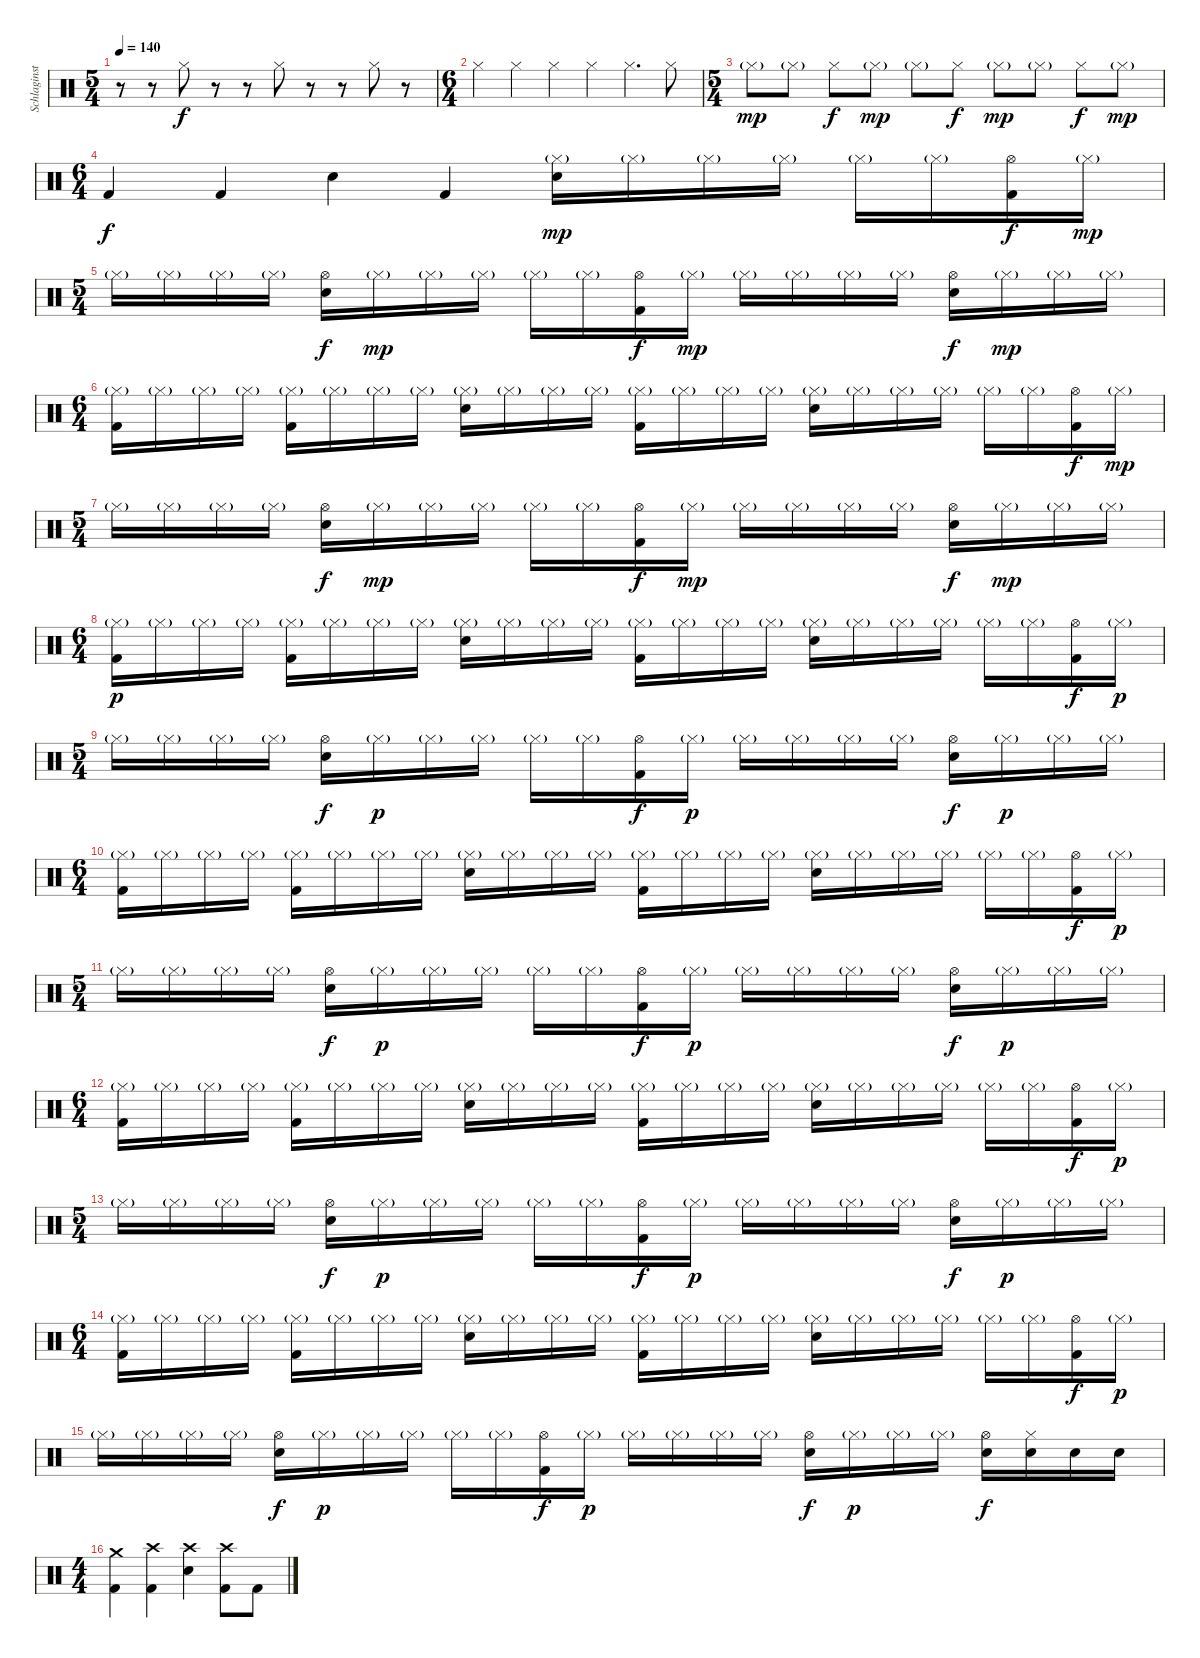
\track ("Schlaginstrumente - Auswahl" "Schlaginst") {instrument percussion}
\staff {score}
\articulation defaults
\ts (5 4)
\tempo 140
\clef neutral
\ks c
r.8{dy f} r.8 "Hi-Hat (closed)".8 r.8 r.8 "Hi-Hat (closed)".8 r.8 r.8 "Hi-Hat (closed)".8 r.8 |
\ts (6 4)
"Hi-Hat (closed)".4 "Hi-Hat (closed)".4 "Hi-Hat (closed)".4 "Hi-Hat (closed)".4 "Hi-Hat (closed)".4{d} "Hi-Hat (closed)".8 |
\ts (5 4)
"Hi-Hat (closed)"{g}.8{dy mp} "Hi-Hat (closed)"{g}.8 "Hi-Hat (closed)".8{dy f} "Hi-Hat (closed)"{g}.8{dy mp} "Hi-Hat (closed)"{g}.8 "Hi-Hat (closed)".8{dy f} "Hi-Hat (closed)"{g}.8{dy mp} "Hi-Hat (closed)"{g}.8 "Hi-Hat (closed)".8{dy f} "Hi-Hat (closed)"{g}.8{dy mp} |
\ts (6 4)
"Kick (hit) 2".4{dy f} "Kick (hit) 2".4 "Electric Snare (hit)".4 "Kick (hit) 2".4 ("Hi-Hat (closed)"{g} "Electric Snare (hit)").16{dy mp} "Hi-Hat (closed)"{g}.16 "Hi-Hat (closed)"{g}.16 "Hi-Hat (closed)"{g}.16 "Hi-Hat (closed)"{g}.16 "Hi-Hat (closed)"{g}.16 ("Hi-Hat (open)" "Kick (hit) 2").16{dy f} "Hi-Hat (closed)"{g}.16{dy mp} |
\ts (5 4)
"Hi-Hat (closed)"{g}.16 "Hi-Hat (closed)"{g}.16 "Hi-Hat (closed)"{g}.16 "Hi-Hat (closed)"{g}.16 ("Hi-Hat (open)" "Electric Snare (hit)").16{dy f} "Hi-Hat (closed)"{g}.16{dy mp} "Hi-Hat (closed)"{g}.16 "Hi-Hat (closed)"{g}.16 "Hi-Hat (closed)"{g}.16 "Hi-Hat (closed)"{g}.16 ("Hi-Hat (open)" "Kick (hit) 2").16{dy f} "Hi-Hat (closed)"{g}.16{dy mp} "Hi-Hat (closed)"{g}.16 "Hi-Hat (closed)"{g}.16 "Hi-Hat (closed)"{g}.16 "Hi-Hat (closed)"{g}.16 ("Hi-Hat (open)" "Electric Snare (hit)").16{dy f} "Hi-Hat (closed)"{g}.16{dy mp} "Hi-Hat (closed)"{g}.16 "Hi-Hat (closed)"{g}.16 |
\ts (6 4)
("Hi-Hat (closed)"{g} "Kick (hit) 2").16 "Hi-Hat (closed)"{g}.16 "Hi-Hat (closed)"{g}.16 "Hi-Hat (closed)"{g}.16 ("Hi-Hat (closed)"{g} "Kick (hit) 2").16 "Hi-Hat (closed)"{g}.16 "Hi-Hat (closed)"{g}.16 "Hi-Hat (closed)"{g}.16 ("Hi-Hat (closed)"{g} "Electric Snare (hit)").16 "Hi-Hat (closed)"{g}.16 "Hi-Hat (closed)"{g}.16 "Hi-Hat (closed)"{g}.16 ("Hi-Hat (closed)"{g} "Kick (hit) 2").16 "Hi-Hat (closed)"{g}.16 "Hi-Hat (closed)"{g}.16 "Hi-Hat (closed)"{g}.16 ("Hi-Hat (closed)"{g} "Electric Snare (hit)").16 "Hi-Hat (closed)"{g}.16 "Hi-Hat (closed)"{g}.16 "Hi-Hat (closed)"{g}.16 "Hi-Hat (closed)"{g}.16 "Hi-Hat (closed)"{g}.16 ("Hi-Hat (open)" "Kick (hit) 2").16{dy f} "Hi-Hat (closed)"{g}.16{dy mp} |
\ts (5 4)
"Hi-Hat (closed)"{g}.16 "Hi-Hat (closed)"{g}.16 "Hi-Hat (closed)"{g}.16 "Hi-Hat (closed)"{g}.16 ("Hi-Hat (open)" "Electric Snare (hit)").16{dy f} "Hi-Hat (closed)"{g}.16{dy mp} "Hi-Hat (closed)"{g}.16 "Hi-Hat (closed)"{g}.16 "Hi-Hat (closed)"{g}.16 "Hi-Hat (closed)"{g}.16 ("Hi-Hat (open)" "Kick (hit) 2").16{dy f} "Hi-Hat (closed)"{g}.16{dy mp} "Hi-Hat (closed)"{g}.16 "Hi-Hat (closed)"{g}.16 "Hi-Hat (closed)"{g}.16 "Hi-Hat (closed)"{g}.16 ("Hi-Hat (open)" "Electric Snare (hit)").16{dy f} "Hi-Hat (closed)"{g}.16{dy mp} "Hi-Hat (closed)"{g}.16 "Hi-Hat (closed)"{g}.16 |
\ts (6 4)
("Hi-Hat (closed)"{g} "Kick (hit) 2").16{dy p} "Hi-Hat (closed)"{g}.16 "Hi-Hat (closed)"{g}.16 "Hi-Hat (closed)"{g}.16 ("Hi-Hat (closed)"{g} "Kick (hit) 2").16 "Hi-Hat (closed)"{g}.16 "Hi-Hat (closed)"{g}.16 "Hi-Hat (closed)"{g}.16 ("Hi-Hat (closed)"{g} "Electric Snare (hit)").16 "Hi-Hat (closed)"{g}.16 "Hi-Hat (closed)"{g}.16 "Hi-Hat (closed)"{g}.16 ("Hi-Hat (closed)"{g} "Kick (hit) 2").16 "Hi-Hat (closed)"{g}.16 "Hi-Hat (closed)"{g}.16 "Hi-Hat (closed)"{g}.16 ("Hi-Hat (closed)"{g} "Electric Snare (hit)").16 "Hi-Hat (closed)"{g}.16 "Hi-Hat (closed)"{g}.16 "Hi-Hat (closed)"{g}.16 "Hi-Hat (closed)"{g}.16 "Hi-Hat (closed)"{g}.16 ("Hi-Hat (open)" "Kick (hit) 2").16{dy f} "Hi-Hat (closed)"{g}.16{dy p} |
\ts (5 4)
"Hi-Hat (closed)"{g}.16 "Hi-Hat (closed)"{g}.16 "Hi-Hat (closed)"{g}.16 "Hi-Hat (closed)"{g}.16 ("Hi-Hat (open)" "Electric Snare (hit)").16{dy f} "Hi-Hat (closed)"{g}.16{dy p} "Hi-Hat (closed)"{g}.16 "Hi-Hat (closed)"{g}.16 "Hi-Hat (closed)"{g}.16 "Hi-Hat (closed)"{g}.16 ("Hi-Hat (open)" "Kick (hit) 2").16{dy f} "Hi-Hat (closed)"{g}.16{dy p} "Hi-Hat (closed)"{g}.16 "Hi-Hat (closed)"{g}.16 "Hi-Hat (closed)"{g}.16 "Hi-Hat (closed)"{g}.16 ("Hi-Hat (open)" "Electric Snare (hit)").16{dy f} "Hi-Hat (closed)"{g}.16{dy p} "Hi-Hat (closed)"{g}.16 "Hi-Hat (closed)"{g}.16 |
\ts (6 4)
("Hi-Hat (closed)"{g} "Kick (hit) 2").16 "Hi-Hat (closed)"{g}.16 "Hi-Hat (closed)"{g}.16 "Hi-Hat (closed)"{g}.16 ("Hi-Hat (closed)"{g} "Kick (hit) 2").16 "Hi-Hat (closed)"{g}.16 "Hi-Hat (closed)"{g}.16 "Hi-Hat (closed)"{g}.16 ("Hi-Hat (closed)"{g} "Electric Snare (hit)").16 "Hi-Hat (closed)"{g}.16 "Hi-Hat (closed)"{g}.16 "Hi-Hat (closed)"{g}.16 ("Hi-Hat (closed)"{g} "Kick (hit) 2").16 "Hi-Hat (closed)"{g}.16 "Hi-Hat (closed)"{g}.16 "Hi-Hat (closed)"{g}.16 ("Hi-Hat (closed)"{g} "Electric Snare (hit)").16 "Hi-Hat (closed)"{g}.16 "Hi-Hat (closed)"{g}.16 "Hi-Hat (closed)"{g}.16 "Hi-Hat (closed)"{g}.16 "Hi-Hat (closed)"{g}.16 ("Hi-Hat (open)" "Kick (hit) 2").16{dy f} "Hi-Hat (closed)"{g}.16{dy p} |
\ts (5 4)
"Hi-Hat (closed)"{g}.16 "Hi-Hat (closed)"{g}.16 "Hi-Hat (closed)"{g}.16 "Hi-Hat (closed)"{g}.16 ("Hi-Hat (open)" "Electric Snare (hit)").16{dy f} "Hi-Hat (closed)"{g}.16{dy p} "Hi-Hat (closed)"{g}.16 "Hi-Hat (closed)"{g}.16 "Hi-Hat (closed)"{g}.16 "Hi-Hat (closed)"{g}.16 ("Hi-Hat (open)" "Kick (hit) 2").16{dy f} "Hi-Hat (closed)"{g}.16{dy p} "Hi-Hat (closed)"{g}.16 "Hi-Hat (closed)"{g}.16 "Hi-Hat (closed)"{g}.16 "Hi-Hat (closed)"{g}.16 ("Hi-Hat (open)" "Electric Snare (hit)").16{dy f} "Hi-Hat (closed)"{g}.16{dy p} "Hi-Hat (closed)"{g}.16 "Hi-Hat (closed)"{g}.16 |
\ts (6 4)
("Hi-Hat (closed)"{g} "Kick (hit) 2").16 "Hi-Hat (closed)"{g}.16 "Hi-Hat (closed)"{g}.16 "Hi-Hat (closed)"{g}.16 ("Hi-Hat (closed)"{g} "Kick (hit) 2").16 "Hi-Hat (closed)"{g}.16 "Hi-Hat (closed)"{g}.16 "Hi-Hat (closed)"{g}.16 ("Hi-Hat (closed)"{g} "Electric Snare (hit)").16 "Hi-Hat (closed)"{g}.16 "Hi-Hat (closed)"{g}.16 "Hi-Hat (closed)"{g}.16 ("Hi-Hat (closed)"{g} "Kick (hit) 2").16 "Hi-Hat (closed)"{g}.16 "Hi-Hat (closed)"{g}.16 "Hi-Hat (closed)"{g}.16 ("Hi-Hat (closed)"{g} "Electric Snare (hit)").16 "Hi-Hat (closed)"{g}.16 "Hi-Hat (closed)"{g}.16 "Hi-Hat (closed)"{g}.16 "Hi-Hat (closed)"{g}.16 "Hi-Hat (closed)"{g}.16 ("Hi-Hat (open)" "Kick (hit) 2").16{dy f} "Hi-Hat (closed)"{g}.16{dy p} |
\ts (5 4)
"Hi-Hat (closed)"{g}.16 "Hi-Hat (closed)"{g}.16 "Hi-Hat (closed)"{g}.16 "Hi-Hat (closed)"{g}.16 ("Hi-Hat (open)" "Electric Snare (hit)").16{dy f} "Hi-Hat (closed)"{g}.16{dy p} "Hi-Hat (closed)"{g}.16 "Hi-Hat (closed)"{g}.16 "Hi-Hat (closed)"{g}.16 "Hi-Hat (closed)"{g}.16 ("Hi-Hat (open)" "Kick (hit) 2").16{dy f} "Hi-Hat (closed)"{g}.16{dy p} "Hi-Hat (closed)"{g}.16 "Hi-Hat (closed)"{g}.16 "Hi-Hat (closed)"{g}.16 "Hi-Hat (closed)"{g}.16 ("Hi-Hat (open)" "Electric Snare (hit)").16{dy f} "Hi-Hat (closed)"{g}.16{dy p} "Hi-Hat (closed)"{g}.16 "Hi-Hat (closed)"{g}.16 |
\ts (6 4)
("Hi-Hat (closed)"{g} "Kick (hit) 2").16 "Hi-Hat (closed)"{g}.16 "Hi-Hat (closed)"{g}.16 "Hi-Hat (closed)"{g}.16 ("Hi-Hat (closed)"{g} "Kick (hit) 2").16 "Hi-Hat (closed)"{g}.16 "Hi-Hat (closed)"{g}.16 "Hi-Hat (closed)"{g}.16 ("Hi-Hat (closed)"{g} "Electric Snare (hit)").16 "Hi-Hat (closed)"{g}.16 "Hi-Hat (closed)"{g}.16 "Hi-Hat (closed)"{g}.16 ("Hi-Hat (closed)"{g} "Kick (hit) 2").16 "Hi-Hat (closed)"{g}.16 "Hi-Hat (closed)"{g}.16 "Hi-Hat (closed)"{g}.16 ("Hi-Hat (closed)"{g} "Electric Snare (hit)").16 "Hi-Hat (closed)"{g}.16 "Hi-Hat (closed)"{g}.16 "Hi-Hat (closed)"{g}.16 "Hi-Hat (closed)"{g}.16 "Hi-Hat (closed)"{g}.16 ("Hi-Hat (open)" "Kick (hit) 2").16{dy f} "Hi-Hat (closed)"{g}.16{dy p} |
"Hi-Hat (closed)"{g}.16 "Hi-Hat (closed)"{g}.16 "Hi-Hat (closed)"{g}.16 "Hi-Hat (closed)"{g}.16 ("Hi-Hat (open)" "Electric Snare (hit)").16{dy f} "Hi-Hat (closed)"{g}.16{dy p} "Hi-Hat (closed)"{g}.16 "Hi-Hat (closed)"{g}.16 "Hi-Hat (closed)"{g}.16 "Hi-Hat (closed)"{g}.16 ("Hi-Hat (open)" "Kick (hit) 2").16{dy f} "Hi-Hat (closed)"{g}.16{dy p} "Hi-Hat (closed)"{g}.16 "Hi-Hat (closed)"{g}.16 "Hi-Hat (closed)"{g}.16 "Hi-Hat (closed)"{g}.16 ("Hi-Hat (open)" "Electric Snare (hit)").16{dy f} "Hi-Hat (closed)"{g}.16{dy p} "Hi-Hat (closed)"{g}.16 "Hi-Hat (closed)"{g}.16 ("Hi-Hat (open)" "Electric Snare (hit)").16{dy f} ("Hi-Hat (closed)" "Electric Snare (hit)").16 "Electric Snare (hit)".16 "Electric Snare (hit)".16 |
\ts (4 4)
("Crash medium (hit)" "Kick (hit) 2").4 ("Crash high (hit)" "Kick (hit) 2").4 ("Crash high (hit)" "Electric Snare (hit)").4 ("Crash high (hit)" "Kick (hit) 2").8 "Kick (hit) 2".8
